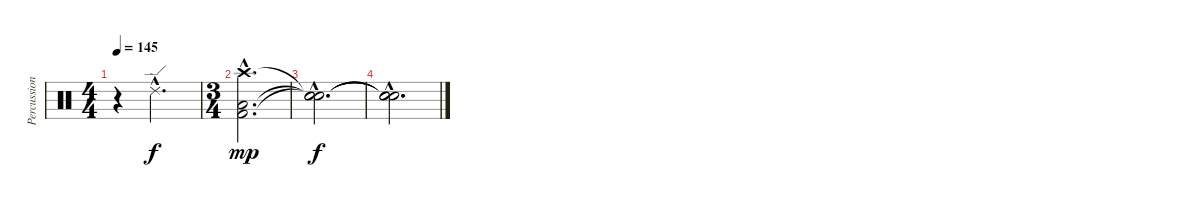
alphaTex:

\track ("Percussion" "Percussion") {instrument percussion}
\staff {score}
\articulation defaults
\ts (4 4)
\tempo 145
\clef neutral
\ks c
r.4{dy f} "Ride (edge) 2"{hac}.2{d} |
\ts (3 4)
("Crash high (hit)"{hac} "Low Floor Tom (hit)"{hac} "Kick (hit) 2"{hac}).2{d dy mp} |
("Snare (hit)"{hac t} "Snare (hit)"{hac t} "Snare (hit)"{hac t}).2{d dy f} |
("Snare (hit)"{hac t} "Snare (hit)"{hac t} "Snare (hit)"{hac t}).2{d}
